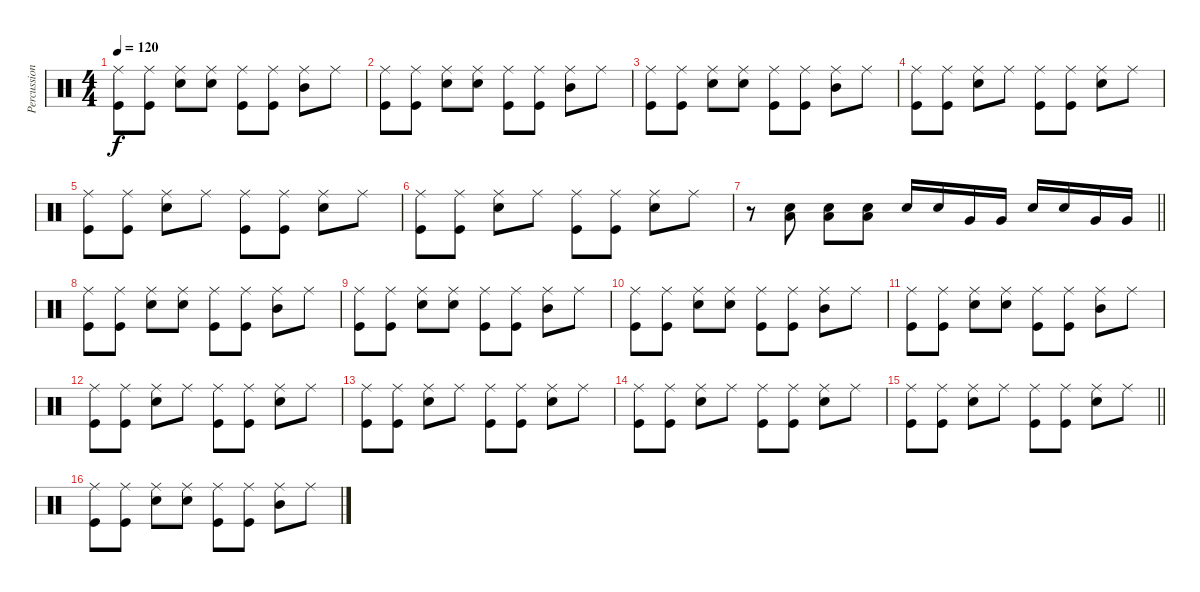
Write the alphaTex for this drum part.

\track ("Percussion" "Percussion") {instrument percussion}
\staff {score}
\articulation defaults
\ts (4 4)
\tempo 120
\clef neutral
\ks c
("Ride (middle)" "Kick (hit)").8{dy f} ("Ride (middle)" "Kick (hit)").8 ("Ride (middle)" "Electric Snare (hit)").8 ("Ride (middle)" "Electric Snare (hit)").8 ("Ride (middle)" "Kick (hit)").8 ("Ride (middle)" "Kick (hit)").8 ("Ride (middle)" "Mid Tom (hit)").8 "Ride (middle)".8 |
("Ride (middle)" "Kick (hit)").8 ("Ride (middle)" "Kick (hit)").8 ("Ride (middle)" "Electric Snare (hit)").8 ("Ride (middle)" "Electric Snare (hit)").8 ("Ride (middle)" "Kick (hit)").8 ("Ride (middle)" "Kick (hit)").8 ("Ride (middle)" "Mid Tom (hit)").8 "Ride (middle)".8 |
("Ride (middle)" "Kick (hit)").8 ("Ride (middle)" "Kick (hit)").8 ("Ride (middle)" "Electric Snare (hit)").8 ("Ride (middle)" "Electric Snare (hit)").8 ("Ride (middle)" "Kick (hit)").8 ("Ride (middle)" "Kick (hit)").8 ("Ride (middle)" "Mid Tom (hit)").8 "Ride (middle)".8 |
("Ride (middle)" "Kick (hit)").8 ("Ride (middle)" "Kick (hit)").8 ("Ride (middle)" "Electric Snare (hit)").8 "Ride (middle)".8 ("Ride (middle)" "Kick (hit)").8 ("Ride (middle)" "Kick (hit)").8 ("Ride (middle)" "Electric Snare (hit)").8 "Ride (middle)".8 |
("Ride (middle)" "Kick (hit)").8 ("Ride (middle)" "Kick (hit)").8 ("Ride (middle)" "Electric Snare (hit)").8 "Ride (middle)".8 ("Ride (middle)" "Kick (hit)").8 ("Ride (middle)" "Kick (hit)").8 ("Ride (middle)" "Electric Snare (hit)").8 "Ride (middle)".8 |
("Ride (middle)" "Kick (hit)").8 ("Ride (middle)" "Kick (hit)").8 ("Ride (middle)" "Electric Snare (hit)").8 "Ride (middle)".8 ("Ride (middle)" "Kick (hit)").8 ("Ride (middle)" "Kick (hit)").8 ("Ride (middle)" "Electric Snare (hit)").8 "Ride (middle)".8 |
\barLineRight lightlight
r.8 ("Electric Snare (hit)" "Low Floor Tom (hit)").8 ("Electric Snare (hit)" "Low Floor Tom (hit)").8 ("Electric Snare (hit)" "Low Floor Tom (hit)").8 "Electric Snare (hit)".16 "Electric Snare (hit)".16 "Very Low Tom (hit)".16 "Very Low Tom (hit)".16 "Electric Snare (hit)".16 "Electric Snare (hit)".16 "Very Low Tom (hit)".16 "Very Low Tom (hit)".16 |
("Ride (middle)" "Kick (hit)").8 ("Ride (middle)" "Kick (hit)").8 ("Ride (middle)" "Electric Snare (hit)").8 ("Ride (middle)" "Electric Snare (hit)").8 ("Ride (middle)" "Kick (hit)").8 ("Ride (middle)" "Kick (hit)").8 ("Ride (middle)" "Mid Tom (hit)").8 "Ride (middle)".8 |
("Ride (middle)" "Kick (hit)").8 ("Ride (middle)" "Kick (hit)").8 ("Ride (middle)" "Electric Snare (hit)").8 ("Ride (middle)" "Electric Snare (hit)").8 ("Ride (middle)" "Kick (hit)").8 ("Ride (middle)" "Kick (hit)").8 ("Ride (middle)" "Mid Tom (hit)").8 "Ride (middle)".8 |
("Ride (middle)" "Kick (hit)").8 ("Ride (middle)" "Kick (hit)").8 ("Ride (middle)" "Electric Snare (hit)").8 ("Ride (middle)" "Electric Snare (hit)").8 ("Ride (middle)" "Kick (hit)").8 ("Ride (middle)" "Kick (hit)").8 ("Ride (middle)" "Mid Tom (hit)").8 "Ride (middle)".8 |
("Ride (middle)" "Kick (hit)").8 ("Ride (middle)" "Kick (hit)").8 ("Ride (middle)" "Electric Snare (hit)").8 ("Ride (middle)" "Electric Snare (hit)").8 ("Ride (middle)" "Kick (hit)").8 ("Ride (middle)" "Kick (hit)").8 ("Ride (middle)" "Mid Tom (hit)").8 "Ride (middle)".8 |
("Ride (middle)" "Kick (hit)").8 ("Ride (middle)" "Kick (hit)").8 ("Ride (middle)" "Electric Snare (hit)").8 "Ride (middle)".8 ("Ride (middle)" "Kick (hit)").8 ("Ride (middle)" "Kick (hit)").8 ("Ride (middle)" "Electric Snare (hit)").8 "Ride (middle)".8 |
("Ride (middle)" "Kick (hit)").8 ("Ride (middle)" "Kick (hit)").8 ("Ride (middle)" "Electric Snare (hit)").8 "Ride (middle)".8 ("Ride (middle)" "Kick (hit)").8 ("Ride (middle)" "Kick (hit)").8 ("Ride (middle)" "Electric Snare (hit)").8 "Ride (middle)".8 |
("Ride (middle)" "Kick (hit)").8 ("Ride (middle)" "Kick (hit)").8 ("Ride (middle)" "Electric Snare (hit)").8 "Ride (middle)".8 ("Ride (middle)" "Kick (hit)").8 ("Ride (middle)" "Kick (hit)").8 ("Ride (middle)" "Electric Snare (hit)").8 "Ride (middle)".8 |
\barLineRight lightlight
("Ride (middle)" "Kick (hit)").8 ("Ride (middle)" "Kick (hit)").8 ("Ride (middle)" "Electric Snare (hit)").8 "Ride (middle)".8 ("Ride (middle)" "Kick (hit)").8 ("Ride (middle)" "Kick (hit)").8 ("Ride (middle)" "Electric Snare (hit)").8 "Ride (middle)".8 |
\section ("" " ")
("Ride (middle)" "Kick (hit)").8 ("Ride (middle)" "Kick (hit)").8 ("Ride (middle)" "Electric Snare (hit)").8 ("Ride (middle)" "Electric Snare (hit)").8 ("Ride (middle)" "Kick (hit)").8 ("Ride (middle)" "Kick (hit)").8 ("Ride (middle)" "Mid Tom (hit)").8 "Ride (middle)".8
